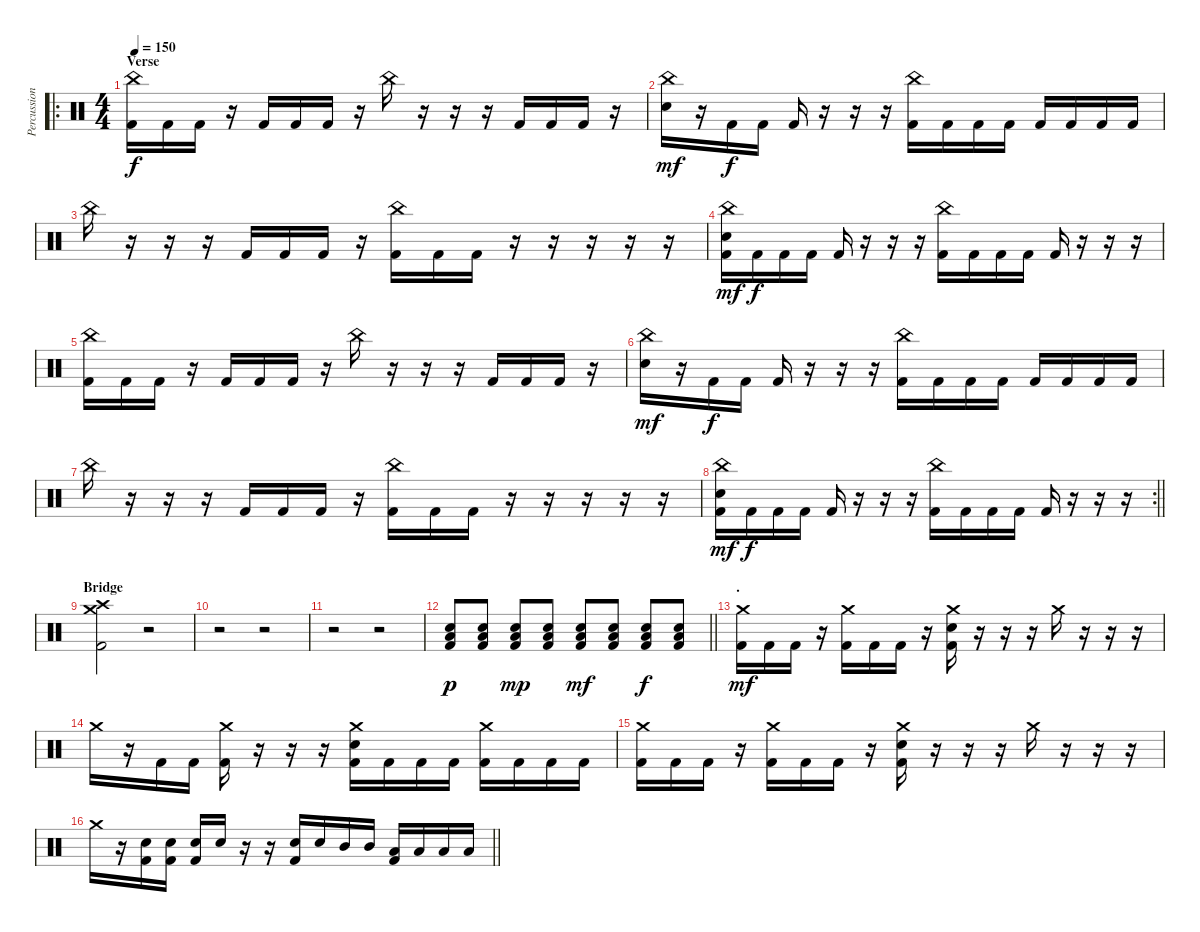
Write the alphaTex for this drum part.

\track ("Percussion" "Percussion") {instrument percussion}
\staff {score}
\articulation defaults
\ro
\ts (4 4)
\section ("" "Verse")
\tempo 150
\clef neutral
\ks c
("China (hit)" "Kick (hit) 2").16{dy f} "Kick (hit) 2".16 "Kick (hit) 2".16 r.16 "Kick (hit) 2".16 "Kick (hit) 2".16 "Kick (hit) 2".16 r.16 "China (hit)".16 r.16 r.16 r.16 "Kick (hit) 2".16 "Kick (hit) 2".16 "Kick (hit) 2".16 r.16 |
("China (hit)" "Electric Snare (hit)").16{dy mf} r.16 "Kick (hit) 2".16{dy f} "Kick (hit) 2".16 "Kick (hit) 2".16 r.16 r.16 r.16 ("China (hit)" "Kick (hit) 2").16 "Kick (hit) 2".16 "Kick (hit) 2".16 "Kick (hit) 2".16 "Kick (hit) 2".16 "Kick (hit) 2".16 "Kick (hit) 2".16 "Kick (hit) 2".16 |
"China (hit)".16 r.16 r.16 r.16 "Kick (hit) 2".16 "Kick (hit) 2".16 "Kick (hit) 2".16 r.16 ("China (hit)" "Kick (hit) 2").16 "Kick (hit) 2".16 "Kick (hit) 2".16 r.16 r.16 r.16 r.16 r.16 |
("China (hit)" "Electric Snare (hit)" "Kick (hit) 2").16{dy mf} "Kick (hit) 2".16{dy f} "Kick (hit) 2".16 "Kick (hit) 2".16 "Kick (hit) 2".16 r.16 r.16 r.16 ("China (hit)" "Kick (hit) 2").16 "Kick (hit) 2".16 "Kick (hit) 2".16 "Kick (hit) 2".16 "Kick (hit) 2".16 r.16 r.16 r.16 |
("China (hit)" "Kick (hit) 2").16 "Kick (hit) 2".16 "Kick (hit) 2".16 r.16 "Kick (hit) 2".16 "Kick (hit) 2".16 "Kick (hit) 2".16 r.16 "China (hit)".16 r.16 r.16 r.16 "Kick (hit) 2".16 "Kick (hit) 2".16 "Kick (hit) 2".16 r.16 |
("China (hit)" "Electric Snare (hit)").16{dy mf} r.16 "Kick (hit) 2".16{dy f} "Kick (hit) 2".16 "Kick (hit) 2".16 r.16 r.16 r.16 ("China (hit)" "Kick (hit) 2").16 "Kick (hit) 2".16 "Kick (hit) 2".16 "Kick (hit) 2".16 "Kick (hit) 2".16 "Kick (hit) 2".16 "Kick (hit) 2".16 "Kick (hit) 2".16 |
"China (hit)".16 r.16 r.16 r.16 "Kick (hit) 2".16 "Kick (hit) 2".16 "Kick (hit) 2".16 r.16 ("China (hit)" "Kick (hit) 2").16 "Kick (hit) 2".16 "Kick (hit) 2".16 r.16 r.16 r.16 r.16 r.16 |
\rc 2
\barLineRight lightlight
("China (hit)" "Electric Snare (hit)" "Kick (hit) 2").16{dy mf} "Kick (hit) 2".16{dy f} "Kick (hit) 2".16 "Kick (hit) 2".16 "Kick (hit) 2".16 r.16 r.16 r.16 ("China (hit)" "Kick (hit) 2").16 "Kick (hit) 2".16 "Kick (hit) 2".16 "Kick (hit) 2".16 "Kick (hit) 2".16 r.16 r.16 r.16 |
\section ("" "Bridge")
("Crash medium (hit)" "Crash high (hit)" "Kick (hit) 2").2 r.2 |
r.2 r.2 |
r.2 r.2 |
\barLineRight lightlight
("Low Floor Tom (hit)" "Electric Snare (hit)" "Kick (hit) 2").8{dy p} ("Low Floor Tom (hit)" "Electric Snare (hit)" "Kick (hit) 2").8 ("Low Floor Tom (hit)" "Electric Snare (hit)" "Kick (hit) 2").8{dy mp} ("Low Floor Tom (hit)" "Electric Snare (hit)" "Kick (hit) 2").8 ("Low Floor Tom (hit)" "Electric Snare (hit)" "Kick (hit) 2").8{dy mf} ("Low Floor Tom (hit)" "Electric Snare (hit)" "Kick (hit) 2").8 ("Low Floor Tom (hit)" "Electric Snare (hit)" "Kick (hit) 2").8{dy f} ("Low Floor Tom (hit)" "Electric Snare (hit)" "Kick (hit) 2").8 |
\section ("" ".")
("Crash medium (hit)" "Kick (hit) 2").16{dy mf} "Kick (hit) 2".16 "Kick (hit) 2".16 r.16 ("Crash medium (hit)" "Kick (hit) 2").16 "Kick (hit) 2".16 "Kick (hit) 2".16 r.16 ("Crash medium (hit)" "Electric Snare (hit)" "Kick (hit) 2").16 r.16 r.16 r.16 "Crash medium (hit)".16 r.16 r.16 r.16 |
"Crash medium (hit)".16 r.16 "Kick (hit) 2".16 "Kick (hit) 2".16 ("Crash medium (hit)" "Kick (hit) 2").16 r.16 r.16 r.16 ("Crash medium (hit)" "Electric Snare (hit)" "Kick (hit) 2").16 "Kick (hit) 2".16 "Kick (hit) 2".16 "Kick (hit) 2".16 ("Crash medium (hit)" "Kick (hit) 2").16 "Kick (hit) 2".16 "Kick (hit) 2".16 "Kick (hit) 2".16 |
("Crash medium (hit)" "Kick (hit) 2").16 "Kick (hit) 2".16 "Kick (hit) 2".16 r.16 ("Crash medium (hit)" "Kick (hit) 2").16 "Kick (hit) 2".16 "Kick (hit) 2".16 r.16 ("Crash medium (hit)" "Electric Snare (hit)" "Kick (hit) 2").16 r.16 r.16 r.16 "Crash medium (hit)".16 r.16 r.16 r.16 |
\barLineRight lightlight "Crash medium (hit)".16
r.16 ("Electric Snare (hit)" "Kick (hit) 2").16 ("Electric Snare (hit)" "Kick (hit) 2").16 ("Electric Snare (hit)" "Kick (hit) 2").16 "Electric Snare (hit)".16 r.16 r.16 ("Electric Snare (hit)" "Kick (hit) 2").16 "Electric Snare (hit)".16 "Mid Tom (hit)".16 "Mid Tom (hit)".16 ("Low Tom (hit)" "Kick (hit) 2").16 "Low Tom (hit)".16 "Low Floor Tom (hit)".16 "Low Floor Tom (hit)".16
